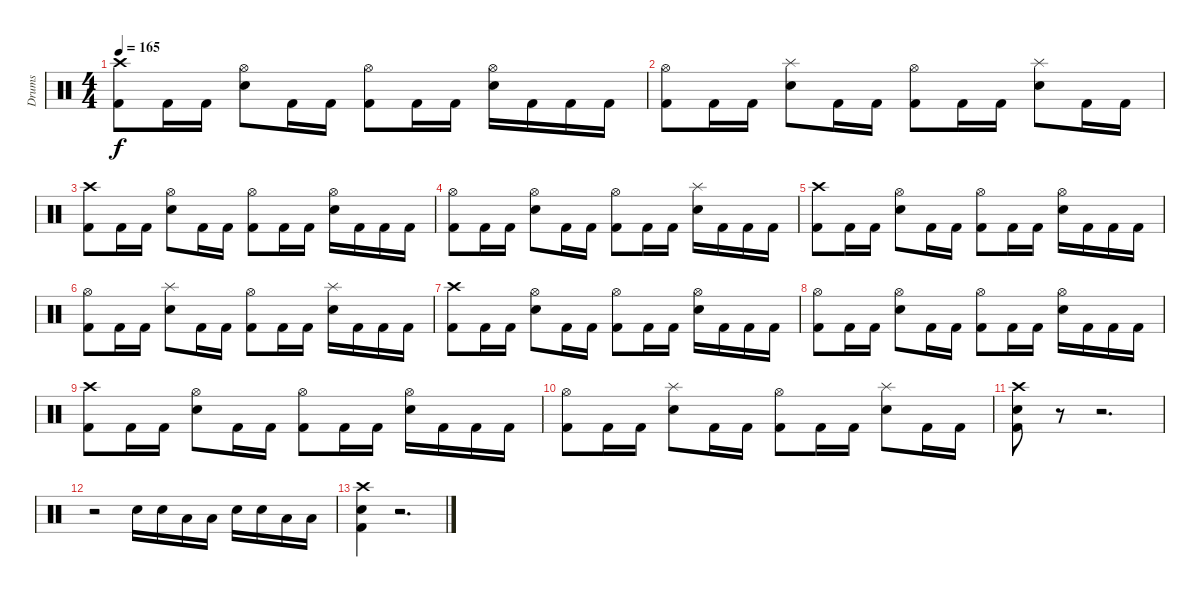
\track ("Drums" "Drums") {instrument percussion}
\staff {score}
\articulation defaults
\ts (4 4)
\tempo 165
\clef neutral
\ks c
("Crash high (hit)" "Kick (hit) 2").8{dy f} "Kick (hit) 2".16 "Kick (hit) 2".16 ("Hi-Hat (open)" "Snare (hit) 2").8 "Kick (hit) 2".16 "Kick (hit) 2".16 ("Hi-Hat (open)" "Kick (hit) 2").8 "Kick (hit) 2".16 "Kick (hit) 2".16 ("Hi-Hat (open)" "Snare (hit) 2").16 "Kick (hit) 2".16 "Kick (hit) 2".16 "Kick (hit) 2".16 |
("Hi-Hat (open)" "Kick (hit) 2").8 "Kick (hit) 2".16 "Kick (hit) 2".16 ("Splash (hit)" "Snare (hit) 2").8 "Kick (hit) 2".16 "Kick (hit) 2".16 ("Hi-Hat (open)" "Kick (hit) 2").8 "Kick (hit) 2".16 "Kick (hit) 2".16 ("Splash (hit)" "Snare (hit) 2").8 "Kick (hit) 2".16 "Kick (hit) 2".16 |
("Crash high (hit)" "Kick (hit) 2").8 "Kick (hit) 2".16 "Kick (hit) 2".16 ("Hi-Hat (open)" "Snare (hit) 2").8 "Kick (hit) 2".16 "Kick (hit) 2".16 ("Hi-Hat (open)" "Kick (hit) 2").8 "Kick (hit) 2".16 "Kick (hit) 2".16 ("Hi-Hat (open)" "Snare (hit) 2").16 "Kick (hit) 2".16 "Kick (hit) 2".16 "Kick (hit) 2".16 |
("Hi-Hat (open)" "Kick (hit) 2").8 "Kick (hit) 2".16 "Kick (hit) 2".16 ("Hi-Hat (open)" "Snare (hit) 2").8 "Kick (hit) 2".16 "Kick (hit) 2".16 ("Hi-Hat (open)" "Kick (hit) 2").8 "Kick (hit) 2".16 "Kick (hit) 2".16 ("Splash (hit)" "Snare (hit) 2").16 "Kick (hit) 2".16 "Kick (hit) 2".16 "Kick (hit) 2".16 |
("Crash high (hit)" "Kick (hit) 2").8 "Kick (hit) 2".16 "Kick (hit) 2".16 ("Hi-Hat (open)" "Snare (hit) 2").8 "Kick (hit) 2".16 "Kick (hit) 2".16 ("Hi-Hat (open)" "Kick (hit) 2").8 "Kick (hit) 2".16 "Kick (hit) 2".16 ("Hi-Hat (open)" "Snare (hit) 2").16 "Kick (hit) 2".16 "Kick (hit) 2".16 "Kick (hit) 2".16 |
("Hi-Hat (open)" "Kick (hit) 2").8 "Kick (hit) 2".16 "Kick (hit) 2".16 ("Splash (hit)" "Snare (hit) 2").8 "Kick (hit) 2".16 "Kick (hit) 2".16 ("Hi-Hat (open)" "Kick (hit) 2").8 "Kick (hit) 2".16 "Kick (hit) 2".16 ("Splash (hit)" "Snare (hit) 2").16 "Kick (hit) 2".16 "Kick (hit) 2".16 "Kick (hit) 2".16 |
("Crash high (hit)" "Kick (hit) 2").8 "Kick (hit) 2".16 "Kick (hit) 2".16 ("Hi-Hat (open)" "Snare (hit) 2").8 "Kick (hit) 2".16 "Kick (hit) 2".16 ("Hi-Hat (open)" "Kick (hit) 2").8 "Kick (hit) 2".16 "Kick (hit) 2".16 ("Hi-Hat (open)" "Snare (hit) 2").16 "Kick (hit) 2".16 "Kick (hit) 2".16 "Kick (hit) 2".16 |
("Hi-Hat (open)" "Kick (hit) 2").8 "Kick (hit) 2".16 "Kick (hit) 2".16 ("Hi-Hat (open)" "Snare (hit) 2").8 "Kick (hit) 2".16 "Kick (hit) 2".16 ("Hi-Hat (open)" "Kick (hit) 2").8 "Kick (hit) 2".16 "Kick (hit) 2".16 ("Hi-Hat (open)" "Snare (hit) 2").16 "Kick (hit) 2".16 "Kick (hit) 2".16 "Kick (hit) 2".16 |
("Crash high (hit)" "Kick (hit) 2").8 "Kick (hit) 2".16 "Kick (hit) 2".16 ("Hi-Hat (open)" "Snare (hit) 2").8 "Kick (hit) 2".16 "Kick (hit) 2".16 ("Hi-Hat (open)" "Kick (hit) 2").8 "Kick (hit) 2".16 "Kick (hit) 2".16 ("Hi-Hat (open)" "Snare (hit) 2").16 "Kick (hit) 2".16 "Kick (hit) 2".16 "Kick (hit) 2".16 |
("Hi-Hat (open)" "Kick (hit) 2").8 "Kick (hit) 2".16 "Kick (hit) 2".16 ("Splash (hit)" "Snare (hit) 2").8 "Kick (hit) 2".16 "Kick (hit) 2".16 ("Hi-Hat (open)" "Kick (hit) 2").8 "Kick (hit) 2".16 "Kick (hit) 2".16 ("Splash (hit)" "Snare (hit) 2").8 "Kick (hit) 2".16 "Kick (hit) 2".16 |
("Crash high (hit)" "Snare (hit) 2" "Kick (hit) 2").8 r.8 r.2{d} |
r.2 "Snare (hit) 2".16 "Snare (hit) 2".16 "Low Tom (hit)".16 "Low Tom (hit)".16 "Snare (hit) 2".16 "Snare (hit) 2".16 "Low Tom (hit)".16 "Low Tom (hit)".16 |
("Crash high (hit)" "Snare (hit) 2" "Kick (hit) 2").4 r.2{d}
